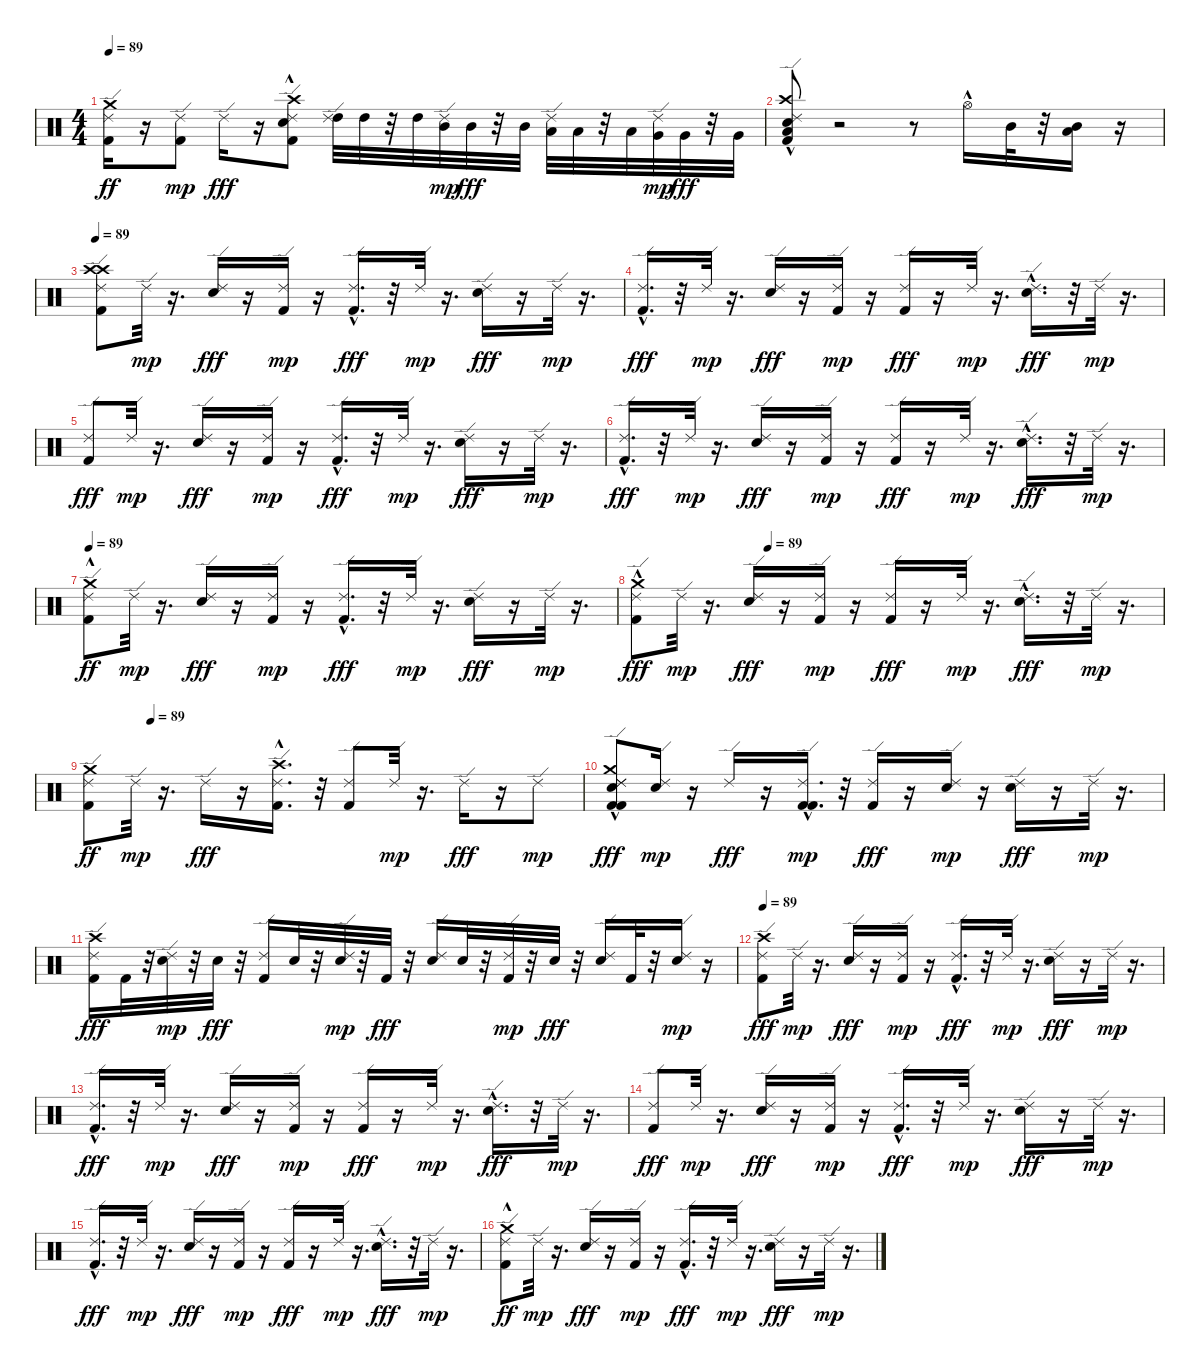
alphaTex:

\track "" {instrument percussion}
\staff {score}
\articulation defaults
\ts (4 4)
\tempo 89
\clef neutral
\ks c
("Kick (hit) 2" "Ride (edge) 2" "Crash medium (hit)").16{dy ff} r.16 ("Kick (hit) 2" "Ride (edge) 2").8{dy mp} "Ride (edge) 2".16{dy fff} r.16 ("Kick (hit) 2" "Snare (hit) 2" "Ride (edge) 2" "Crash high (hit)"{hac}).8 ("High Tom (hit)" "Ride (edge) 2").32 "High Tom (hit)".32 r.32 "High Tom (hit)".32 ("Mid Tom (hit)" "Ride (edge) 2").32{dy mp} "Mid Tom (hit)".32{dy fff} r.32 "Mid Tom (hit)".32 ("Low Tom (hit)" "Ride (edge) 2").32 "Low Tom (hit)".32 r.32 "Low Tom (hit)".32 ("Very Low Tom (hit)" "Ride (edge) 2").32{dy mp} "Very Low Tom (hit)".32{dy fff} r.32 "Very Low Tom (hit)".32 |
("Low Floor Tom (hit)" "Ride (edge) 2" "Kick (hit) 2"{hac} "Snare (hit) 2" "Crash high (hit)"{hac}).8 r.2 r.8 "Hi-Hat (open)"{hac}.16 "Mid Tom (hit)".32 r.32 ("Mid Tom (hit)" "Low Tom (hit)").16 r.16 |
\tempo 89
("Crash high (hit)" "Kick (hit) 2" "Crash high (hit)" "Ride (edge) 2").8 "Ride (edge) 2".32{dy mp} r.16{d} ("Snare (hit) 2" "Ride (edge) 2").16{dy fff} r.16 ("Kick (hit) 2" "Ride (edge) 2").16{dy mp} r.16 ("Kick (hit) 2"{hac} "Ride (edge) 2").16{d dy fff} r.32 "Ride (edge) 2".32{dy mp} r.16{d} ("Snare (hit) 2" "Ride (edge) 2").16{dy fff} r.16 "Ride (edge) 2".32{dy mp} r.16{d} |
("Kick (hit) 2"{hac} "Ride (edge) 2").16{d dy fff} r.32 "Ride (edge) 2".32{dy mp} r.16{d} ("Snare (hit) 2" "Ride (edge) 2").16{dy fff} r.16 ("Kick (hit) 2" "Ride (edge) 2").16{dy mp} r.16 ("Kick (hit) 2" "Ride (edge) 2").16{dy fff} r.16 "Ride (edge) 2".32{dy mp} r.16{d} ("Snare (hit) 2"{hac} "Ride (edge) 2").16{d dy fff} r.32 "Ride (edge) 2".32{dy mp} r.16{d} |
("Kick (hit) 2" "Ride (edge) 2").8{dy fff} "Ride (edge) 2".32{dy mp} r.16{d} ("Snare (hit) 2" "Ride (edge) 2").16{dy fff} r.16 ("Kick (hit) 2" "Ride (edge) 2").16{dy mp} r.16 ("Kick (hit) 2"{hac} "Ride (edge) 2").16{d dy fff} r.32 "Ride (edge) 2".32{dy mp} r.16{d} ("Snare (hit) 2" "Ride (edge) 2").16{dy fff} r.16 "Ride (edge) 2".32{dy mp} r.16{d} |
("Kick (hit) 2"{hac} "Ride (edge) 2").16{d dy fff} r.32 "Ride (edge) 2".32{dy mp} r.16{d} ("Snare (hit) 2" "Ride (edge) 2").16{dy fff} r.16 ("Kick (hit) 2" "Ride (edge) 2").16{dy mp} r.16 ("Kick (hit) 2" "Ride (edge) 2").16{dy fff} r.16 "Ride (edge) 2".32{dy mp} r.16{d} ("Snare (hit) 2"{hac} "Ride (edge) 2").16{d dy fff} r.32 "Ride (edge) 2".32{dy mp} r.16{d} |
\tempo 89
("Kick (hit) 2" "Ride (edge) 2" "Crash medium (hit)"{hac}).8{dy ff} "Ride (edge) 2".32{dy mp} r.16{d} ("Snare (hit) 2" "Ride (edge) 2").16{dy fff} r.16 ("Kick (hit) 2" "Ride (edge) 2").16{dy mp} r.16 ("Kick (hit) 2"{hac} "Ride (edge) 2").16{d dy fff} r.32 "Ride (edge) 2".32{dy mp} r.16{d} ("Snare (hit) 2" "Ride (edge) 2").16{dy fff} r.16 "Ride (edge) 2".32{dy mp} r.16{d} |
\tempo (89 0.25)
("Kick (hit) 2"{hac} "Ride (edge) 2" "Crash medium (hit)"{hac}).8{dy fff} "Ride (edge) 2".32{dy mp} r.16{d} ("Snare (hit) 2" "Ride (edge) 2").16{dy fff} r.16 ("Kick (hit) 2" "Ride (edge) 2").16{dy mp} r.16 ("Kick (hit) 2" "Ride (edge) 2").16{dy fff} r.16 "Ride (edge) 2".32{dy mp} r.16{d} ("Snare (hit) 2"{hac} "Ride (edge) 2").16{d dy fff} r.32 "Ride (edge) 2".32{dy mp} r.16{d} |
\tempo (89 0.125)
("Kick (hit) 2" "Ride (edge) 2" "Crash medium (hit)").8{dy ff} "Ride (edge) 2".32{dy mp} r.16{d} "Ride (edge) 2".16{dy fff} r.16 ("Kick (hit) 2" "Ride (edge) 2" "Crash high (hit)"{hac}).16{d} r.32 ("Kick (hit) 2" "Ride (edge) 2").8 "Ride (edge) 2".32{dy mp} r.16{d} "Ride (edge) 2".16{dy fff} r.16 "Ride (edge) 2".8{dy mp} |
("Kick (hit) 2"{hac} "Kick (hit) 2"{hac} "Ride (edge) 2" "Ride (edge) 2" "Crash medium (hit)" "Snare (hit) 2").8{dy fff} ("Snare (hit) 2" "Ride (edge) 2").16{dy mp} r.16 "Ride (edge) 2".16{dy fff} r.16 ("Kick (hit) 2"{hac} "Kick (hit) 2"{hac} "Ride (edge) 2").16{d dy mp} r.32 ("Kick (hit) 2" "Ride (edge) 2").16{dy fff} r.16 ("Snare (hit) 2" "Ride (edge) 2").16{dy mp} r.16 ("Snare (hit) 2" "Ride (edge) 2").16{dy fff} r.16 "Ride (edge) 2".32{dy mp} r.16{d} |
("Crash high (hit)" "Kick (hit) 2" "Ride (edge) 2").16{dy fff} "Kick (hit) 2".32 r.32 ("Snare (hit) 2" "Ride (edge) 2").32{dy mp} r.32 "Snare (hit) 2".32{dy fff} r.32 ("Kick (hit) 2" "Ride (edge) 2").16 "Snare (hit) 2".32 r.32 ("Snare (hit) 2" "Ride (edge) 2").32{dy mp} r.32 "Kick (hit) 2".32{dy fff} r.32 ("Snare (hit) 2" "Ride (edge) 2").16 "Snare (hit) 2".32 r.32 ("Kick (hit) 2" "Ride (edge) 2").32{dy mp} r.32 "Snare (hit) 2".32{dy fff} r.32 ("Snare (hit) 2" "Ride (edge) 2").16 "Kick (hit) 2".32 r.32 ("Snare (hit) 2" "Ride (edge) 2").16{dy mp} r.16 |
\tempo 89
("Kick (hit) 2" "Crash high (hit)" "Ride (edge) 2").8{dy fff} "Ride (edge) 2".32{dy mp} r.16{d} ("Snare (hit) 2" "Ride (edge) 2").16{dy fff} r.16 ("Kick (hit) 2" "Ride (edge) 2").16{dy mp} r.16 ("Kick (hit) 2"{hac} "Ride (edge) 2").16{d dy fff} r.32 "Ride (edge) 2".32{dy mp} r.16{d} ("Snare (hit) 2" "Ride (edge) 2").16{dy fff} r.16 "Ride (edge) 2".32{dy mp} r.16{d} |
("Kick (hit) 2"{hac} "Ride (edge) 2").16{d dy fff} r.32 "Ride (edge) 2".32{dy mp} r.16{d} ("Snare (hit) 2" "Ride (edge) 2").16{dy fff} r.16 ("Kick (hit) 2" "Ride (edge) 2").16{dy mp} r.16 ("Kick (hit) 2" "Ride (edge) 2").16{dy fff} r.16 "Ride (edge) 2".32{dy mp} r.16{d} ("Snare (hit) 2"{hac} "Ride (edge) 2").16{d dy fff} r.32 "Ride (edge) 2".32{dy mp} r.16{d} |
("Kick (hit) 2" "Ride (edge) 2").8{dy fff} "Ride (edge) 2".32{dy mp} r.16{d} ("Snare (hit) 2" "Ride (edge) 2").16{dy fff} r.16 ("Kick (hit) 2" "Ride (edge) 2").16{dy mp} r.16 ("Kick (hit) 2"{hac} "Ride (edge) 2").16{d dy fff} r.32 "Ride (edge) 2".32{dy mp} r.16{d} ("Snare (hit) 2" "Ride (edge) 2").16{dy fff} r.16 "Ride (edge) 2".32{dy mp} r.16{d} |
("Kick (hit) 2"{hac} "Ride (edge) 2").16{d dy fff} r.32 "Ride (edge) 2".32{dy mp} r.16{d} ("Snare (hit) 2" "Ride (edge) 2").16{dy fff} r.16 ("Kick (hit) 2" "Ride (edge) 2").16{dy mp} r.16 ("Kick (hit) 2" "Ride (edge) 2").16{dy fff} r.16 "Ride (edge) 2".32{dy mp} r.16{d} ("Snare (hit) 2"{hac} "Ride (edge) 2").16{d dy fff} r.32 "Ride (edge) 2".32{dy mp} r.16{d} |
("Kick (hit) 2" "Ride (edge) 2" "Crash medium (hit)"{hac}).8{dy ff} "Ride (edge) 2".32{dy mp} r.16{d} ("Snare (hit) 2" "Ride (edge) 2").16{dy fff} r.16 ("Kick (hit) 2" "Ride (edge) 2").16{dy mp} r.16 ("Kick (hit) 2"{hac} "Ride (edge) 2").16{d dy fff} r.32 "Ride (edge) 2".32{dy mp} r.16{d} ("Snare (hit) 2" "Ride (edge) 2").16{dy fff} r.16 "Ride (edge) 2".32{dy mp} r.16{d}
